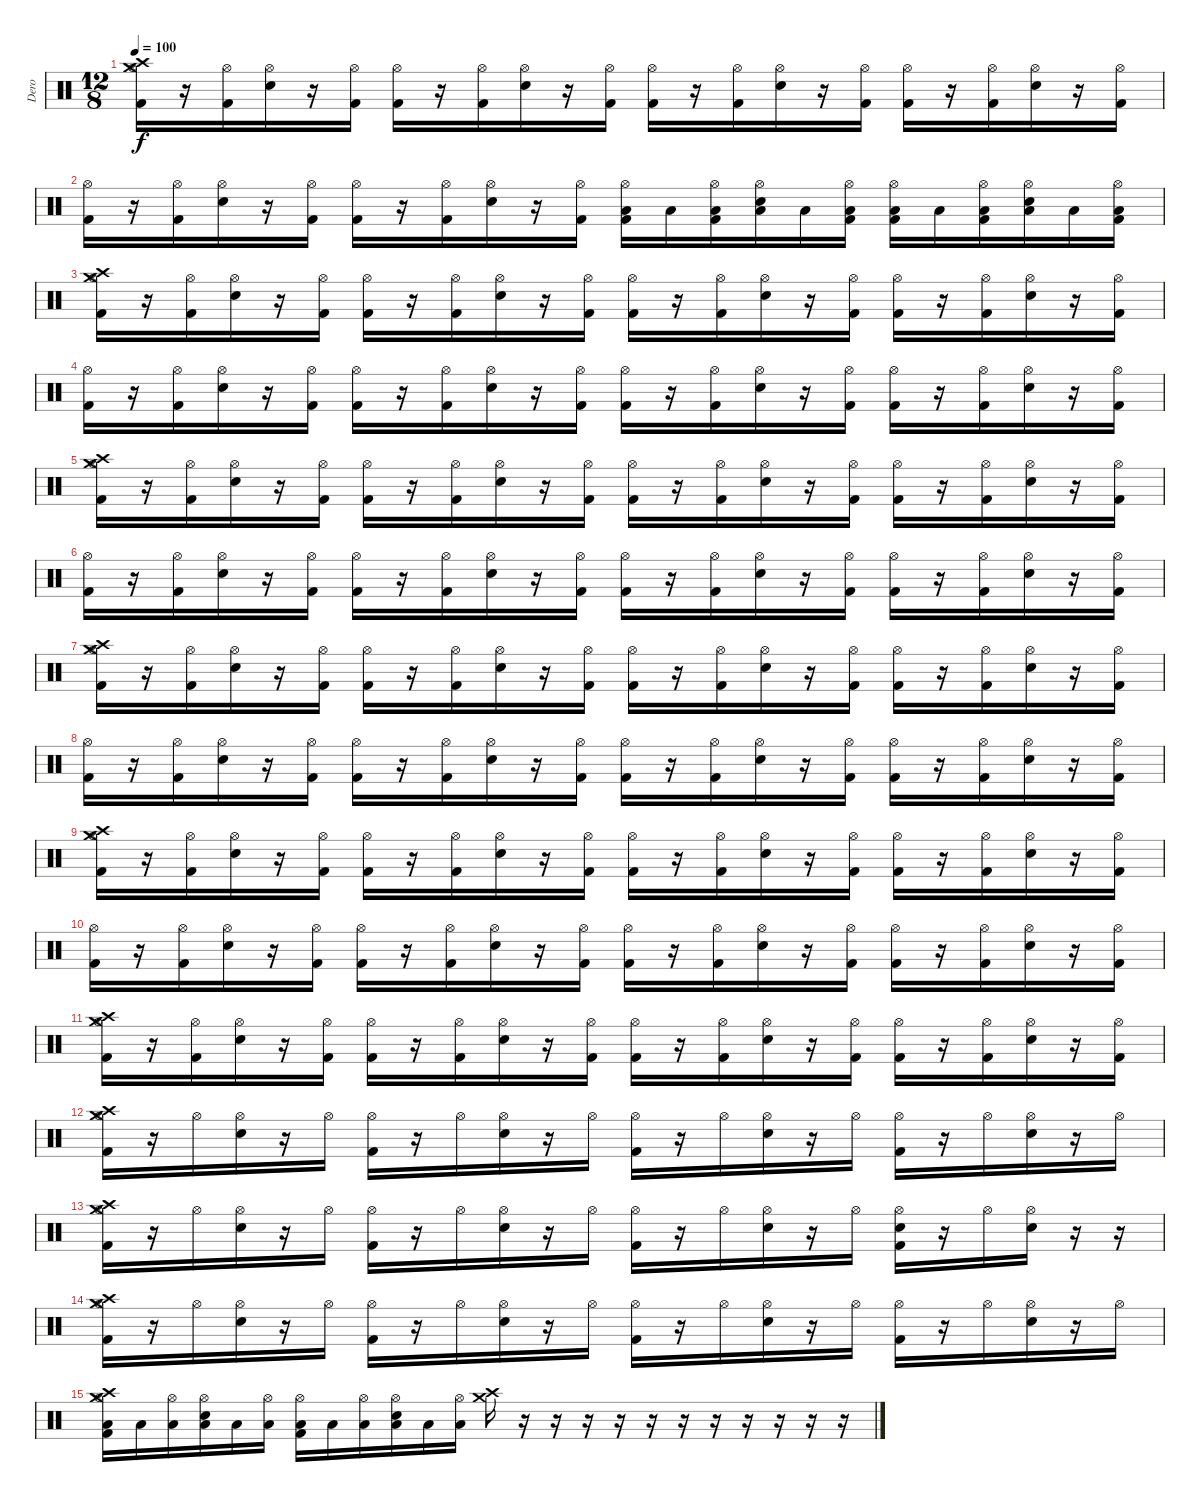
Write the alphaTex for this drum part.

\track ("Dero" "Dero") {instrument percussion}
\staff {score}
\articulation defaults
\ts (12 8)
\tempo 100
\clef neutral
\ks c
("Crash high (hit)" "Hi-Hat (open)" "Crash medium (hit)" "Kick (hit) 2").16{dy f volume 16} r.16 ("Hi-Hat (open)" "Kick (hit) 2").16 ("Hi-Hat (open)" "Snare (hit) 2").16 r.16 ("Hi-Hat (open)" "Kick (hit) 2").16 ("Hi-Hat (open)" "Kick (hit) 2").16 r.16 ("Hi-Hat (open)" "Kick (hit) 2").16 ("Hi-Hat (open)" "Snare (hit) 2").16 r.16 ("Hi-Hat (open)" "Kick (hit) 2").16 ("Hi-Hat (open)" "Kick (hit) 2").16 r.16 ("Hi-Hat (open)" "Kick (hit) 2").16 ("Hi-Hat (open)" "Snare (hit) 2").16 r.16 ("Hi-Hat (open)" "Kick (hit) 2").16 ("Hi-Hat (open)" "Kick (hit) 2").16 r.16 ("Hi-Hat (open)" "Kick (hit) 2").16 ("Hi-Hat (open)" "Snare (hit) 2").16 r.16 ("Hi-Hat (open)" "Kick (hit) 2").16 |
("Hi-Hat (open)" "Kick (hit) 2").16{volume 16} r.16 ("Hi-Hat (open)" "Kick (hit) 2").16 ("Hi-Hat (open)" "Snare (hit) 2").16 r.16 ("Hi-Hat (open)" "Kick (hit) 2").16 ("Hi-Hat (open)" "Kick (hit) 2").16 r.16 ("Hi-Hat (open)" "Kick (hit) 2").16 ("Hi-Hat (open)" "Snare (hit) 2").16 r.16 ("Hi-Hat (open)" "Kick (hit) 2").16 ("Hi-Hat (open)" "Low Tom (hit)" "Kick (hit) 2").16 "Low Tom (hit)".16 ("Hi-Hat (open)" "Low Tom (hit)" "Kick (hit) 2").16 ("Hi-Hat (open)" "Low Tom (hit)" "Snare (hit) 2").16 "Low Tom (hit)".16 ("Hi-Hat (open)" "Low Tom (hit)" "Kick (hit) 2").16 ("Hi-Hat (open)" "Low Tom (hit)" "Kick (hit) 2").16 "Low Tom (hit)".16 ("Hi-Hat (open)" "Low Tom (hit)" "Kick (hit) 2").16 ("Hi-Hat (open)" "Low Tom (hit)" "Snare (hit) 2").16 "Low Tom (hit)".16 ("Hi-Hat (open)" "Low Tom (hit)" "Kick (hit) 2").16 |
("Crash high (hit)" "Hi-Hat (open)" "Crash medium (hit)" "Kick (hit) 2").16{volume 16} r.16 ("Hi-Hat (open)" "Kick (hit) 2").16 ("Hi-Hat (open)" "Snare (hit) 2").16 r.16 ("Hi-Hat (open)" "Kick (hit) 2").16 ("Hi-Hat (open)" "Kick (hit) 2").16 r.16 ("Hi-Hat (open)" "Kick (hit) 2").16 ("Hi-Hat (open)" "Snare (hit) 2").16 r.16 ("Hi-Hat (open)" "Kick (hit) 2").16 ("Hi-Hat (open)" "Kick (hit) 2").16 r.16 ("Hi-Hat (open)" "Kick (hit) 2").16 ("Hi-Hat (open)" "Snare (hit) 2").16 r.16 ("Hi-Hat (open)" "Kick (hit) 2").16 ("Hi-Hat (open)" "Kick (hit) 2").16 r.16 ("Hi-Hat (open)" "Kick (hit) 2").16 ("Hi-Hat (open)" "Snare (hit) 2").16 r.16 ("Hi-Hat (open)" "Kick (hit) 2").16 |
("Hi-Hat (open)" "Kick (hit) 2").16{volume 16} r.16 ("Hi-Hat (open)" "Kick (hit) 2").16 ("Hi-Hat (open)" "Snare (hit) 2").16 r.16 ("Hi-Hat (open)" "Kick (hit) 2").16 ("Hi-Hat (open)" "Kick (hit) 2").16 r.16 ("Hi-Hat (open)" "Kick (hit) 2").16 ("Hi-Hat (open)" "Snare (hit) 2").16 r.16 ("Hi-Hat (open)" "Kick (hit) 2").16 ("Hi-Hat (open)" "Kick (hit) 2").16 r.16 ("Hi-Hat (open)" "Kick (hit) 2").16 ("Hi-Hat (open)" "Snare (hit) 2").16 r.16 ("Hi-Hat (open)" "Kick (hit) 2").16 ("Hi-Hat (open)" "Kick (hit) 2").16 r.16 ("Hi-Hat (open)" "Kick (hit) 2").16 ("Hi-Hat (open)" "Snare (hit) 2").16 r.16 ("Hi-Hat (open)" "Kick (hit) 2").16 |
("Crash high (hit)" "Hi-Hat (open)" "Crash medium (hit)" "Kick (hit) 2").16{volume 16} r.16 ("Hi-Hat (open)" "Kick (hit) 2").16 ("Hi-Hat (open)" "Snare (hit) 2").16 r.16 ("Hi-Hat (open)" "Kick (hit) 2").16 ("Hi-Hat (open)" "Kick (hit) 2").16 r.16 ("Hi-Hat (open)" "Kick (hit) 2").16 ("Hi-Hat (open)" "Snare (hit) 2").16 r.16 ("Hi-Hat (open)" "Kick (hit) 2").16 ("Hi-Hat (open)" "Kick (hit) 2").16 r.16 ("Hi-Hat (open)" "Kick (hit) 2").16 ("Hi-Hat (open)" "Snare (hit) 2").16 r.16 ("Hi-Hat (open)" "Kick (hit) 2").16 ("Hi-Hat (open)" "Kick (hit) 2").16 r.16 ("Hi-Hat (open)" "Kick (hit) 2").16 ("Hi-Hat (open)" "Snare (hit) 2").16 r.16 ("Hi-Hat (open)" "Kick (hit) 2").16 |
("Hi-Hat (open)" "Kick (hit) 2").16{volume 16} r.16 ("Hi-Hat (open)" "Kick (hit) 2").16 ("Hi-Hat (open)" "Snare (hit) 2").16 r.16 ("Hi-Hat (open)" "Kick (hit) 2").16 ("Hi-Hat (open)" "Kick (hit) 2").16 r.16 ("Hi-Hat (open)" "Kick (hit) 2").16 ("Hi-Hat (open)" "Snare (hit) 2").16 r.16 ("Hi-Hat (open)" "Kick (hit) 2").16 ("Hi-Hat (open)" "Kick (hit) 2").16 r.16 ("Hi-Hat (open)" "Kick (hit) 2").16 ("Hi-Hat (open)" "Snare (hit) 2").16 r.16 ("Hi-Hat (open)" "Kick (hit) 2").16 ("Hi-Hat (open)" "Kick (hit) 2").16 r.16 ("Hi-Hat (open)" "Kick (hit) 2").16 ("Hi-Hat (open)" "Snare (hit) 2").16 r.16 ("Hi-Hat (open)" "Kick (hit) 2").16 |
("Crash high (hit)" "Hi-Hat (open)" "Crash medium (hit)" "Kick (hit) 2").16{volume 16} r.16 ("Hi-Hat (open)" "Kick (hit) 2").16 ("Hi-Hat (open)" "Snare (hit) 2").16 r.16 ("Hi-Hat (open)" "Kick (hit) 2").16 ("Hi-Hat (open)" "Kick (hit) 2").16 r.16 ("Hi-Hat (open)" "Kick (hit) 2").16 ("Hi-Hat (open)" "Snare (hit) 2").16 r.16 ("Hi-Hat (open)" "Kick (hit) 2").16 ("Hi-Hat (open)" "Kick (hit) 2").16 r.16 ("Hi-Hat (open)" "Kick (hit) 2").16 ("Hi-Hat (open)" "Snare (hit) 2").16 r.16 ("Hi-Hat (open)" "Kick (hit) 2").16 ("Hi-Hat (open)" "Kick (hit) 2").16 r.16 ("Hi-Hat (open)" "Kick (hit) 2").16 ("Hi-Hat (open)" "Snare (hit) 2").16 r.16 ("Hi-Hat (open)" "Kick (hit) 2").16 |
("Hi-Hat (open)" "Kick (hit) 2").16{volume 16} r.16 ("Hi-Hat (open)" "Kick (hit) 2").16 ("Hi-Hat (open)" "Snare (hit) 2").16 r.16 ("Hi-Hat (open)" "Kick (hit) 2").16 ("Hi-Hat (open)" "Kick (hit) 2").16 r.16 ("Hi-Hat (open)" "Kick (hit) 2").16 ("Hi-Hat (open)" "Snare (hit) 2").16 r.16 ("Hi-Hat (open)" "Kick (hit) 2").16 ("Hi-Hat (open)" "Kick (hit) 2").16 r.16 ("Hi-Hat (open)" "Kick (hit) 2").16 ("Hi-Hat (open)" "Snare (hit) 2").16 r.16 ("Hi-Hat (open)" "Kick (hit) 2").16 ("Hi-Hat (open)" "Kick (hit) 2").16 r.16 ("Hi-Hat (open)" "Kick (hit) 2").16 ("Hi-Hat (open)" "Snare (hit) 2").16 r.16 ("Hi-Hat (open)" "Kick (hit) 2").16 |
("Crash high (hit)" "Hi-Hat (open)" "Crash medium (hit)" "Kick (hit) 2").16{volume 16} r.16 ("Hi-Hat (open)" "Kick (hit) 2").16 ("Hi-Hat (open)" "Snare (hit) 2").16 r.16 ("Hi-Hat (open)" "Kick (hit) 2").16 ("Hi-Hat (open)" "Kick (hit) 2").16 r.16 ("Hi-Hat (open)" "Kick (hit) 2").16 ("Hi-Hat (open)" "Snare (hit) 2").16 r.16 ("Hi-Hat (open)" "Kick (hit) 2").16 ("Hi-Hat (open)" "Kick (hit) 2").16 r.16 ("Hi-Hat (open)" "Kick (hit) 2").16 ("Hi-Hat (open)" "Snare (hit) 2").16 r.16 ("Hi-Hat (open)" "Kick (hit) 2").16 ("Hi-Hat (open)" "Kick (hit) 2").16 r.16 ("Hi-Hat (open)" "Kick (hit) 2").16 ("Hi-Hat (open)" "Snare (hit) 2").16 r.16 ("Hi-Hat (open)" "Kick (hit) 2").16 |
("Hi-Hat (open)" "Kick (hit) 2").16{volume 16} r.16 ("Hi-Hat (open)" "Kick (hit) 2").16 ("Hi-Hat (open)" "Snare (hit) 2").16 r.16 ("Hi-Hat (open)" "Kick (hit) 2").16 ("Hi-Hat (open)" "Kick (hit) 2").16 r.16 ("Hi-Hat (open)" "Kick (hit) 2").16 ("Hi-Hat (open)" "Snare (hit) 2").16 r.16 ("Hi-Hat (open)" "Kick (hit) 2").16 ("Hi-Hat (open)" "Kick (hit) 2").16 r.16 ("Hi-Hat (open)" "Kick (hit) 2").16 ("Hi-Hat (open)" "Snare (hit) 2").16 r.16 ("Hi-Hat (open)" "Kick (hit) 2").16 ("Hi-Hat (open)" "Kick (hit) 2").16 r.16 ("Hi-Hat (open)" "Kick (hit) 2").16 ("Hi-Hat (open)" "Snare (hit) 2").16 r.16 ("Hi-Hat (open)" "Kick (hit) 2").16 |
("Crash medium (hit)" "Hi-Hat (open)" "Crash high (hit)" "Kick (hit) 2").16{volume 16} r.16 ("Hi-Hat (open)" "Kick (hit) 2").16 ("Hi-Hat (open)" "Snare (hit) 2").16 r.16 ("Hi-Hat (open)" "Kick (hit) 2").16 ("Hi-Hat (open)" "Kick (hit) 2").16 r.16 ("Hi-Hat (open)" "Kick (hit) 2").16 ("Hi-Hat (open)" "Snare (hit) 2").16 r.16 ("Hi-Hat (open)" "Kick (hit) 2").16 ("Hi-Hat (open)" "Kick (hit) 2").16 r.16 ("Hi-Hat (open)" "Kick (hit) 2").16 ("Hi-Hat (open)" "Snare (hit) 2").16 r.16 ("Hi-Hat (open)" "Kick (hit) 2").16 ("Hi-Hat (open)" "Kick (hit) 2").16 r.16 ("Hi-Hat (open)" "Kick (hit) 2").16 ("Hi-Hat (open)" "Snare (hit) 2").16 r.16 ("Hi-Hat (open)" "Kick (hit) 2").16 |
("Crash medium (hit)" "Crash high (hit)" "Hi-Hat (open)" "Kick (hit) 2").16 r.16 "Hi-Hat (open)".16 ("Hi-Hat (open)" "Snare (hit) 2").16 r.16 "Hi-Hat (open)".16 ("Hi-Hat (open)" "Kick (hit) 2").16 r.16 "Hi-Hat (open)".16 ("Hi-Hat (open)" "Snare (hit) 2").16 r.16 "Hi-Hat (open)".16 ("Hi-Hat (open)" "Kick (hit) 2").16 r.16 "Hi-Hat (open)".16 ("Hi-Hat (open)" "Snare (hit) 2").16 r.16 "Hi-Hat (open)".16 ("Hi-Hat (open)" "Kick (hit) 2").16 r.16 "Hi-Hat (open)".16 ("Hi-Hat (open)" "Snare (hit) 2").16 r.16 "Hi-Hat (open)".16 |
("Crash medium (hit)" "Crash high (hit)" "Hi-Hat (open)" "Kick (hit) 2").16 r.16 "Hi-Hat (open)".16 ("Hi-Hat (open)" "Snare (hit) 2").16 r.16 "Hi-Hat (open)".16 ("Hi-Hat (open)" "Kick (hit) 2").16 r.16 "Hi-Hat (open)".16 ("Hi-Hat (open)" "Snare (hit) 2").16 r.16 "Hi-Hat (open)".16 ("Hi-Hat (open)" "Kick (hit) 2").16 r.16 "Hi-Hat (open)".16 ("Hi-Hat (open)" "Snare (hit) 2").16 r.16 "Hi-Hat (open)".16 ("Hi-Hat (open)" "Snare (hit) 2" "Kick (hit) 2").16 r.16 "Hi-Hat (open)".16 ("Hi-Hat (open)" "Snare (hit) 2").16 r.16 r.16 |
("Crash medium (hit)" "Crash high (hit)" "Hi-Hat (open)" "Kick (hit) 2").16 r.16 "Hi-Hat (open)".16 ("Hi-Hat (open)" "Snare (hit) 2").16 r.16 "Hi-Hat (open)".16 ("Hi-Hat (open)" "Kick (hit) 2").16 r.16 "Hi-Hat (open)".16 ("Hi-Hat (open)" "Snare (hit) 2").16 r.16 "Hi-Hat (open)".16 ("Hi-Hat (open)" "Kick (hit) 2").16 r.16 "Hi-Hat (open)".16 ("Hi-Hat (open)" "Snare (hit) 2").16 r.16 "Hi-Hat (open)".16 ("Hi-Hat (open)" "Kick (hit) 2").16 r.16 "Hi-Hat (open)".16 ("Hi-Hat (open)" "Snare (hit) 2").16 r.16 "Hi-Hat (open)".16 |
("Crash medium (hit)" "Crash high (hit)" "Hi-Hat (open)" "Low Tom (hit)" "Kick (hit) 2").16 "Low Tom (hit)".16 ("Hi-Hat (open)" "Low Tom (hit)").16 ("Hi-Hat (open)" "Low Tom (hit)" "Snare (hit) 2").16 "Low Tom (hit)".16 ("Hi-Hat (open)" "Low Tom (hit)").16 ("Hi-Hat (open)" "Low Floor Tom (hit)" "Kick (hit) 2").16 "Low Floor Tom (hit)".16 ("Hi-Hat (open)" "Low Floor Tom (hit)").16 ("Hi-Hat (open)" "Low Floor Tom (hit)" "Snare (hit) 2").16 "Low Floor Tom (hit)".16 ("Hi-Hat (open)" "Low Floor Tom (hit)").16 ("Crash medium (hit)" "Crash high (hit)").16 r.16 r.16 r.16 r.16 r.16 r.16 r.16 r.16 r.16 r.16 r.16
